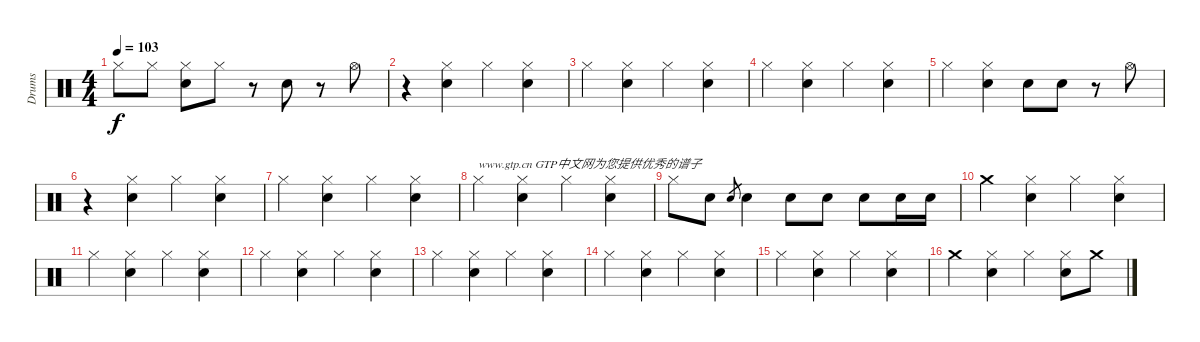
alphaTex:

\track ("Drums" "Drums") {instrument percussion}
\staff {score}
\articulation defaults
\ts (4 4)
\tempo 103
\clef neutral
\ks c "Hi-Hat (closed)".8{dy f} "Hi-Hat (closed)".8
("Hi-Hat (closed)" "Electric Snare (hit)").8 "Hi-Hat (closed)".8 r.8 "Electric Snare (hit)".8 r.8 "Hi-Hat (open)".8 |
r.4 ("Hi-Hat (closed)" "Electric Snare (hit)").4 "Hi-Hat (closed)".4 ("Hi-Hat (closed)" "Electric Snare (hit)").4 |
"Hi-Hat (closed)".4 ("Hi-Hat (closed)" "Electric Snare (hit)").4 "Hi-Hat (closed)".4 ("Hi-Hat (closed)" "Electric Snare (hit)").4 |
"Hi-Hat (closed)".4 ("Hi-Hat (closed)" "Electric Snare (hit)").4 "Hi-Hat (closed)".4 ("Hi-Hat (closed)" "Electric Snare (hit)").4 |
"Hi-Hat (closed)".4 ("Hi-Hat (closed)" "Electric Snare (hit)").4 "Electric Snare (hit)".8 "Electric Snare (hit)".8 r.8 "Hi-Hat (open)".8 |
r.4 ("Hi-Hat (closed)" "Electric Snare (hit)").4 "Hi-Hat (closed)".4 ("Hi-Hat (closed)" "Electric Snare (hit)").4 |
"Hi-Hat (closed)".4 ("Hi-Hat (closed)" "Electric Snare (hit)").4 "Hi-Hat (closed)".4 ("Hi-Hat (closed)" "Electric Snare (hit)").4 |
"Hi-Hat (closed)".4{txt "www.gtp.cn GTP中文网为您提供优秀的谱子"} ("Hi-Hat (closed)" "Electric Snare (hit)").4 "Hi-Hat (closed)".4 ("Hi-Hat (closed)" "Electric Snare (hit)").4 |
"Hi-Hat (closed)".8 "Electric Snare (hit)".8 "Electric Snare (hit)".8{gr} "Electric Snare (hit)".4 "Electric Snare (hit)".8 "Electric Snare (hit)".8 "Electric Snare (hit)".8 "Electric Snare (hit)".16 "Electric Snare (hit)".16 |
"Crash medium (hit)".4 ("Hi-Hat (closed)" "Electric Snare (hit)").4 "Hi-Hat (closed)".4 ("Hi-Hat (closed)" "Electric Snare (hit)").4 |
"Hi-Hat (closed)".4 ("Hi-Hat (closed)" "Electric Snare (hit)").4 "Hi-Hat (closed)".4 ("Hi-Hat (closed)" "Electric Snare (hit)").4 |
"Hi-Hat (closed)".4 ("Hi-Hat (closed)" "Electric Snare (hit)").4 "Hi-Hat (closed)".4 ("Hi-Hat (closed)" "Electric Snare (hit)").4 |
"Hi-Hat (closed)".4 ("Hi-Hat (closed)" "Electric Snare (hit)").4 "Hi-Hat (closed)".4 ("Hi-Hat (closed)" "Electric Snare (hit)").4 |
"Hi-Hat (closed)".4 ("Hi-Hat (closed)" "Electric Snare (hit)").4 "Hi-Hat (closed)".4 ("Hi-Hat (closed)" "Electric Snare (hit)").4 |
"Hi-Hat (closed)".4 ("Hi-Hat (closed)" "Electric Snare (hit)").4 "Hi-Hat (closed)".4 ("Hi-Hat (closed)" "Electric Snare (hit)").4 |
"Crash medium (hit)".4 ("Hi-Hat (closed)" "Electric Snare (hit)").4 "Hi-Hat (closed)".4 ("Hi-Hat (closed)" "Electric Snare (hit)").8 "Crash medium (hit)".8
